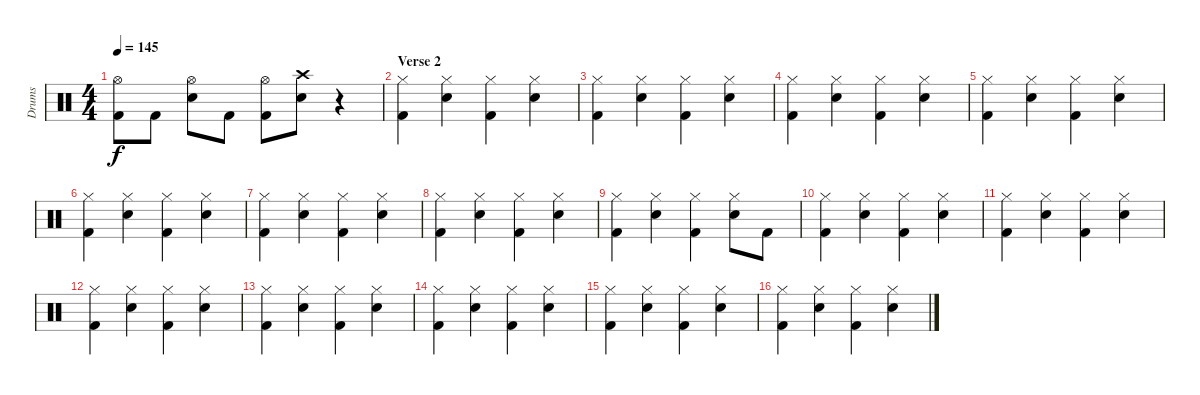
\track ("Drums" "Drums") {instrument percussion}
\staff {score}
\articulation defaults
\ts (4 4)
\tempo 145
\clef neutral
\ks c
("Kick (hit) 2" "Hi-Hat (open)").8{dy f} "Kick (hit) 2".8 ("Electric Snare (hit)" "Hi-Hat (open)").8 "Kick (hit) 2".8 ("Kick (hit) 2" "Hi-Hat (open)").8 ("Electric Snare (hit)" "Crash high (hit)").8 r.4 |
\section ("" "Verse 2")
("Kick (hit) 2" "Hi-Hat (closed)").4 ("Electric Snare (hit)" "Hi-Hat (closed)").4 ("Kick (hit) 2" "Hi-Hat (closed)").4 ("Electric Snare (hit)" "Hi-Hat (closed)").4 |
("Kick (hit) 2" "Hi-Hat (closed)").4 ("Electric Snare (hit)" "Hi-Hat (closed)").4 ("Kick (hit) 2" "Hi-Hat (closed)").4 ("Electric Snare (hit)" "Hi-Hat (closed)").4 |
("Kick (hit) 2" "Hi-Hat (closed)").4 ("Electric Snare (hit)" "Hi-Hat (closed)").4 ("Kick (hit) 2" "Hi-Hat (closed)").4 ("Electric Snare (hit)" "Hi-Hat (closed)").4 |
("Kick (hit) 2" "Hi-Hat (closed)").4 ("Electric Snare (hit)" "Hi-Hat (closed)").4 ("Kick (hit) 2" "Hi-Hat (closed)").4 ("Electric Snare (hit)" "Hi-Hat (closed)").4 |
("Kick (hit) 2" "Hi-Hat (closed)").4 ("Electric Snare (hit)" "Hi-Hat (closed)").4 ("Kick (hit) 2" "Hi-Hat (closed)").4 ("Electric Snare (hit)" "Hi-Hat (closed)").4 |
("Kick (hit) 2" "Hi-Hat (closed)").4 ("Electric Snare (hit)" "Hi-Hat (closed)").4 ("Kick (hit) 2" "Hi-Hat (closed)").4 ("Electric Snare (hit)" "Hi-Hat (closed)").4 |
("Kick (hit) 2" "Hi-Hat (closed)").4 ("Electric Snare (hit)" "Hi-Hat (closed)").4 ("Kick (hit) 2" "Hi-Hat (closed)").4 ("Electric Snare (hit)" "Hi-Hat (closed)").4 |
("Kick (hit) 2" "Hi-Hat (closed)").4 ("Electric Snare (hit)" "Hi-Hat (closed)").4 ("Kick (hit) 2" "Hi-Hat (closed)").4 ("Electric Snare (hit)" "Hi-Hat (closed)").8 "Kick (hit) 2".8 |
("Kick (hit) 2" "Hi-Hat (closed)").4 ("Electric Snare (hit)" "Hi-Hat (closed)").4 ("Kick (hit) 2" "Hi-Hat (closed)").4 ("Electric Snare (hit)" "Hi-Hat (closed)").4 |
("Kick (hit) 2" "Hi-Hat (closed)").4 ("Electric Snare (hit)" "Hi-Hat (closed)").4 ("Kick (hit) 2" "Hi-Hat (closed)").4 ("Electric Snare (hit)" "Hi-Hat (closed)").4 |
("Kick (hit) 2" "Hi-Hat (closed)").4 ("Electric Snare (hit)" "Hi-Hat (closed)").4 ("Kick (hit) 2" "Hi-Hat (closed)").4 ("Electric Snare (hit)" "Hi-Hat (closed)").4 |
("Kick (hit) 2" "Hi-Hat (closed)").4 ("Electric Snare (hit)" "Hi-Hat (closed)").4 ("Kick (hit) 2" "Hi-Hat (closed)").4 ("Electric Snare (hit)" "Hi-Hat (closed)").4 |
("Kick (hit) 2" "Hi-Hat (closed)").4 ("Electric Snare (hit)" "Hi-Hat (closed)").4 ("Kick (hit) 2" "Hi-Hat (closed)").4 ("Electric Snare (hit)" "Hi-Hat (closed)").4 |
("Kick (hit) 2" "Hi-Hat (closed)").4 ("Electric Snare (hit)" "Hi-Hat (closed)").4 ("Kick (hit) 2" "Hi-Hat (closed)").4 ("Electric Snare (hit)" "Hi-Hat (closed)").4 |
("Kick (hit) 2" "Hi-Hat (closed)").4 ("Electric Snare (hit)" "Hi-Hat (closed)").4 ("Kick (hit) 2" "Hi-Hat (closed)").4 ("Electric Snare (hit)" "Hi-Hat (closed)").4
